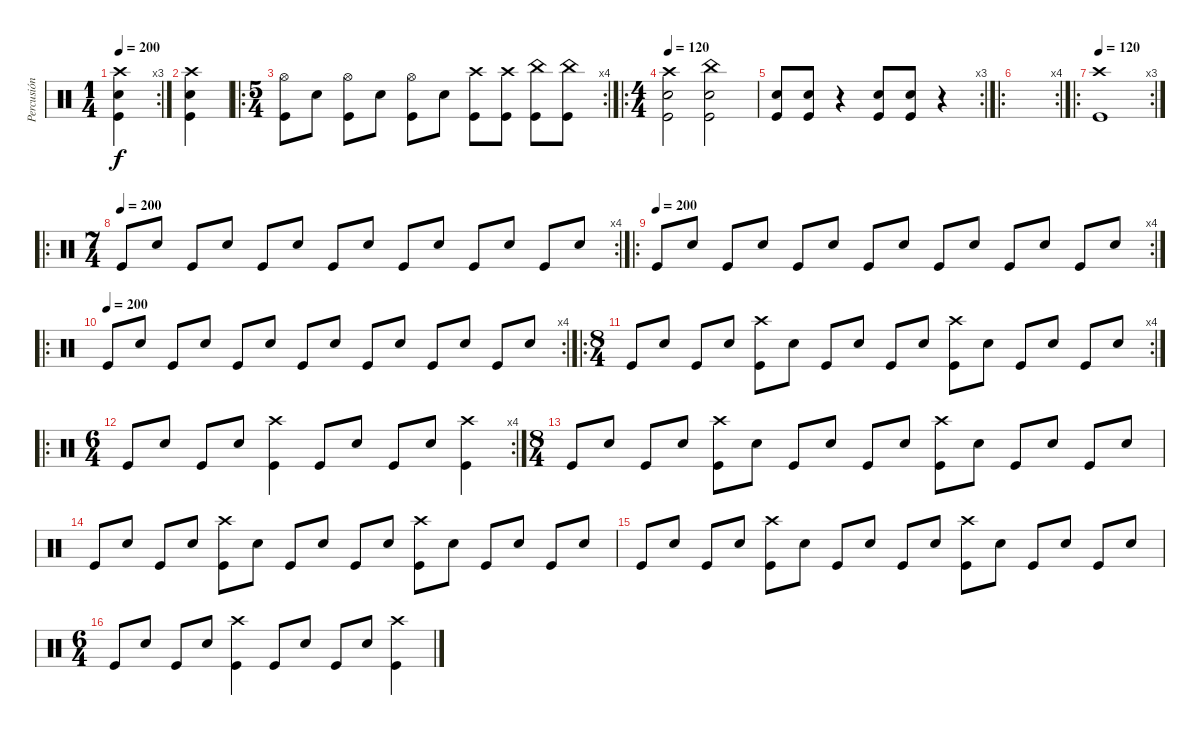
\track ("Percusión" "Percusión") {instrument percussion}
\staff {score}
\articulation defaults
\rc 3
\ts (1 4)
\tempo 200
\clef neutral
\ks c
("Crash high (hit)" "Snare (hit) 2" "Kick (hit)").4{dy f} |
("Kick (hit)" "Snare (hit) 2" "Crash high (hit)").4 |
\ro
\rc 4
\ts (5 4)
("Hi-Hat (open)" "Kick (hit)").8 "Snare (hit) 2".8 ("Hi-Hat (open)" "Kick (hit)").8 "Snare (hit) 2".8 ("Hi-Hat (open)" "Kick (hit)").8 "Snare (hit) 2".8 ("Crash high (hit)" "Kick (hit)").8 ("Crash high (hit)" "Kick (hit)").8 ("Kick (hit)" "China (hit)").8 ("China (hit)" "Kick (hit)").8 |
\ro
\ts (4 4)
\tempo 120
("Crash high (hit)" "Snare (hit) 2" "Kick (hit)").2 ("China (hit)" "Snare (hit) 2" "Kick (hit)").2 |
\rc 3
("Snare (hit) 2" "Kick (hit)").8 ("Snare (hit) 2" "Kick (hit)").8 r.4 ("Snare (hit) 2" "Kick (hit)").8 ("Snare (hit) 2" "Kick (hit)").8 r.4 |
\ro
\rc 4
|
\ro
\rc 3
\tempo 120
("Crash high (hit)" "Kick (hit)").1 |
\ro
\rc 4
\ts (7 4)
\tempo (200)
"Kick (hit)".8 "Snare (hit) 2".8 "Kick (hit)".8 "Snare (hit) 2".8 "Kick (hit)".8 "Snare (hit) 2".8 "Kick (hit)".8 "Snare (hit) 2".8 "Kick (hit)".8 "Snare (hit) 2".8 "Kick (hit)".8 "Snare (hit) 2".8 "Kick (hit)".8 "Snare (hit) 2".8 |
\ro
\rc 4
\tempo (200)
"Kick (hit)".8 "Snare (hit) 2".8 "Kick (hit)".8 "Snare (hit) 2".8 "Kick (hit)".8 "Snare (hit) 2".8 "Kick (hit)".8 "Snare (hit) 2".8 "Kick (hit)".8 "Snare (hit) 2".8 "Kick (hit)".8 "Snare (hit) 2".8 "Kick (hit)".8 "Snare (hit) 2".8 |
\ro
\rc 4
\tempo (200)
"Kick (hit)".8 "Snare (hit) 2".8 "Kick (hit)".8 "Snare (hit) 2".8 "Kick (hit)".8 "Snare (hit) 2".8 "Kick (hit)".8 "Snare (hit) 2".8 "Kick (hit)".8 "Snare (hit) 2".8 "Kick (hit)".8 "Snare (hit) 2".8 "Kick (hit)".8 "Snare (hit) 2".8 |
\ro
\rc 4
\ts (8 4)
"Kick (hit)".8 "Snare (hit) 2".8 "Kick (hit)".8 "Snare (hit) 2".8 ("Crash high (hit)" "Kick (hit)").8 "Snare (hit) 2".8 "Kick (hit)".8 "Snare (hit) 2".8 "Kick (hit)".8 "Snare (hit) 2".8 ("Crash high (hit)" "Kick (hit)").8 "Snare (hit) 2".8 "Kick (hit)".8 "Snare (hit) 2".8 "Kick (hit)".8 "Snare (hit) 2".8 |
\ro
\rc 4
\ts (6 4)
"Kick (hit)".8 "Snare (hit) 2".8 "Kick (hit)".8 "Snare (hit) 2".8 ("Kick (hit)" "Crash high (hit)").4 "Kick (hit)".8 "Snare (hit) 2".8 "Kick (hit)".8 "Snare (hit) 2".8 ("Crash high (hit)" "Kick (hit)").4 |
\ts (8 4)
"Kick (hit)".8 "Snare (hit) 2".8 "Kick (hit)".8 "Snare (hit) 2".8 ("Crash high (hit)" "Kick (hit)").8 "Snare (hit) 2".8 "Kick (hit)".8 "Snare (hit) 2".8 "Kick (hit)".8 "Snare (hit) 2".8 ("Crash high (hit)" "Kick (hit)").8 "Snare (hit) 2".8 "Kick (hit)".8 "Snare (hit) 2".8 "Kick (hit)".8 "Snare (hit) 2".8 |
"Kick (hit)".8 "Snare (hit) 2".8 "Kick (hit)".8 "Snare (hit) 2".8 ("Crash high (hit)" "Kick (hit)").8 "Snare (hit) 2".8 "Kick (hit)".8 "Snare (hit) 2".8 "Kick (hit)".8 "Snare (hit) 2".8 ("Crash high (hit)" "Kick (hit)").8 "Snare (hit) 2".8 "Kick (hit)".8 "Snare (hit) 2".8 "Kick (hit)".8 "Snare (hit) 2".8 |
"Kick (hit)".8 "Snare (hit) 2".8 "Kick (hit)".8 "Snare (hit) 2".8 ("Crash high (hit)" "Kick (hit)").8 "Snare (hit) 2".8 "Kick (hit)".8 "Snare (hit) 2".8 "Kick (hit)".8 "Snare (hit) 2".8 ("Crash high (hit)" "Kick (hit)").8 "Snare (hit) 2".8 "Kick (hit)".8 "Snare (hit) 2".8 "Kick (hit)".8 "Snare (hit) 2".8 |
\ts (6 4)
"Kick (hit)".8 "Snare (hit) 2".8 "Kick (hit)".8 "Snare (hit) 2".8 ("Kick (hit)" "Crash high (hit)").4 "Kick (hit)".8 "Snare (hit) 2".8 "Kick (hit)".8 "Snare (hit) 2".8 ("Crash high (hit)" "Kick (hit)").4
